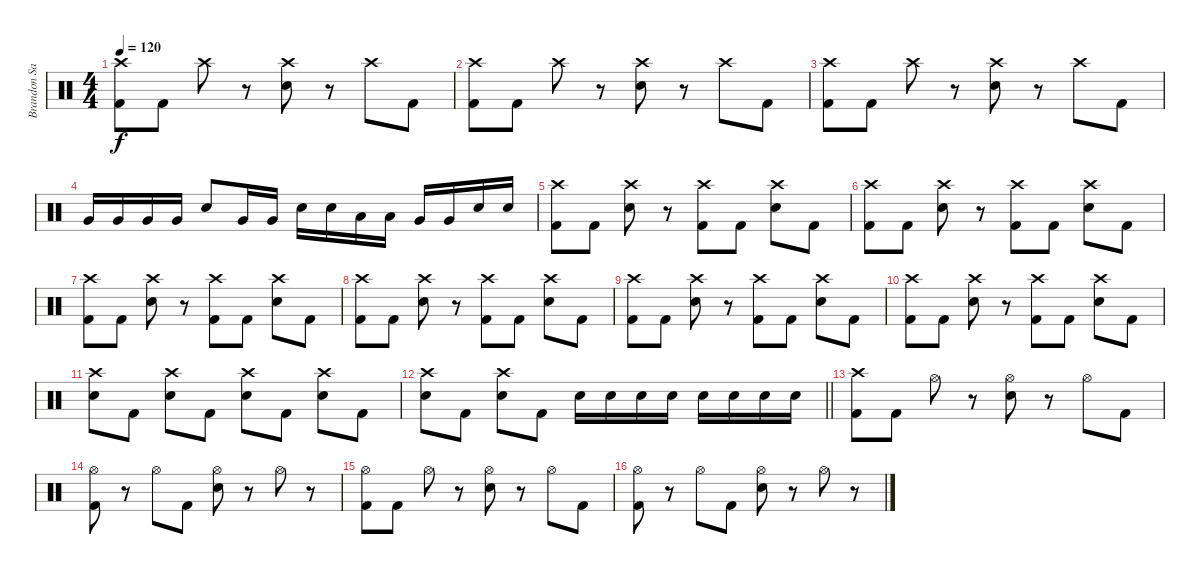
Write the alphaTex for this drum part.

\track ("Brandon Saller" "Brandon Sa") {instrument percussion}
\staff {score}
\articulation defaults
\ts (4 4)
\tempo 120
\clef neutral
\ks c
("Crash high (hit)" "Kick (hit) 2").8{dy f} "Kick (hit) 2".8 "Crash high (hit)".8 r.8 ("Crash high (hit)" "Electric Snare (hit)").8 r.8 "Crash high (hit)".8 "Kick (hit) 2".8 |
("Crash high (hit)" "Kick (hit) 2").8 "Kick (hit) 2".8 "Crash high (hit)".8 r.8 ("Crash high (hit)" "Electric Snare (hit)").8 r.8 "Crash high (hit)".8 "Kick (hit) 2".8 |
("Crash high (hit)" "Kick (hit) 2").8 "Kick (hit) 2".8 "Crash high (hit)".8 r.8 ("Crash high (hit)" "Electric Snare (hit)").8 r.8 "Crash high (hit)".8 "Kick (hit) 2".8 |
"Very Low Tom (hit)".16 "Very Low Tom (hit)".16 "Very Low Tom (hit)".16 "Very Low Tom (hit)".16 "Electric Snare (hit)".8 "Very Low Tom (hit)".16 "Very Low Tom (hit)".16 "Electric Snare (hit)".16 "Electric Snare (hit)".16 "Low Tom (hit)".16 "Low Tom (hit)".16 "Very Low Tom (hit)".16 "Very Low Tom (hit)".16 "Electric Snare (hit)".16 "Electric Snare (hit)".16 |
("Crash high (hit)" "Kick (hit) 2").8 "Kick (hit) 2".8 ("Crash high (hit)" "Electric Snare (hit)").8 r.8 ("Crash high (hit)" "Kick (hit) 2").8 "Kick (hit) 2".8 ("Crash high (hit)" "Electric Snare (hit)").8 "Kick (hit) 2".8 |
("Crash high (hit)" "Kick (hit) 2").8 "Kick (hit) 2".8 ("Crash high (hit)" "Electric Snare (hit)").8 r.8 ("Crash high (hit)" "Kick (hit) 2").8 "Kick (hit) 2".8 ("Crash high (hit)" "Electric Snare (hit)").8 "Kick (hit) 2".8 |
("Crash high (hit)" "Kick (hit) 2").8 "Kick (hit) 2".8 ("Crash high (hit)" "Electric Snare (hit)").8 r.8 ("Crash high (hit)" "Kick (hit) 2").8 "Kick (hit) 2".8 ("Crash high (hit)" "Electric Snare (hit)").8 "Kick (hit) 2".8 |
("Crash high (hit)" "Kick (hit) 2").8 "Kick (hit) 2".8 ("Crash high (hit)" "Electric Snare (hit)").8 r.8 ("Crash high (hit)" "Kick (hit) 2").8 "Kick (hit) 2".8 ("Crash high (hit)" "Electric Snare (hit)").8 "Kick (hit) 2".8 |
("Crash high (hit)" "Kick (hit) 2").8 "Kick (hit) 2".8 ("Crash high (hit)" "Electric Snare (hit)").8 r.8 ("Crash high (hit)" "Kick (hit) 2").8 "Kick (hit) 2".8 ("Crash high (hit)" "Electric Snare (hit)").8 "Kick (hit) 2".8 |
("Crash high (hit)" "Kick (hit) 2").8 "Kick (hit) 2".8 ("Crash high (hit)" "Electric Snare (hit)").8 r.8 ("Crash high (hit)" "Kick (hit) 2").8 "Kick (hit) 2".8 ("Crash high (hit)" "Electric Snare (hit)").8 "Kick (hit) 2".8 |
("Crash high (hit)" "Electric Snare (hit)").8 "Kick (hit) 2".8 ("Crash high (hit)" "Electric Snare (hit)").8 "Kick (hit) 2".8 ("Crash high (hit)" "Electric Snare (hit)").8 "Kick (hit) 2".8 ("Crash high (hit)" "Electric Snare (hit)").8 "Kick (hit) 2".8 |
\barLineRight lightlight
("Crash high (hit)" "Electric Snare (hit)").8 "Kick (hit) 2".8 ("Crash high (hit)" "Electric Snare (hit)").8 "Kick (hit) 2".8 "Electric Snare (hit)".16 "Electric Snare (hit)".16 "Electric Snare (hit)".16 "Electric Snare (hit)".16 "Electric Snare (hit)".16 "Electric Snare (hit)".16 "Electric Snare (hit)".16 "Electric Snare (hit)".16 |
("Crash high (hit)" "Kick (hit) 2").8{volume 14} "Kick (hit) 2".8 "Hi-Hat (open)".8 r.8 ("Hi-Hat (open)" "Electric Snare (hit)").8 r.8 "Hi-Hat (open)".8 "Kick (hit) 2".8 |
("Hi-Hat (open)" "Kick (hit) 2").8 r.8 "Hi-Hat (open)".8 "Kick (hit) 2".8 ("Hi-Hat (open)" "Electric Snare (hit)").8 r.8 "Hi-Hat (open)".8 r.8 |
("Hi-Hat (open)" "Kick (hit) 2").8 "Kick (hit) 2".8 "Hi-Hat (open)".8 r.8 ("Hi-Hat (open)" "Electric Snare (hit)").8 r.8 "Hi-Hat (open)".8 "Kick (hit) 2".8 |
("Hi-Hat (open)" "Kick (hit) 2").8 r.8 "Hi-Hat (open)".8 "Kick (hit) 2".8 ("Hi-Hat (open)" "Electric Snare (hit)").8 r.8 "Hi-Hat (open)".8 r.8
